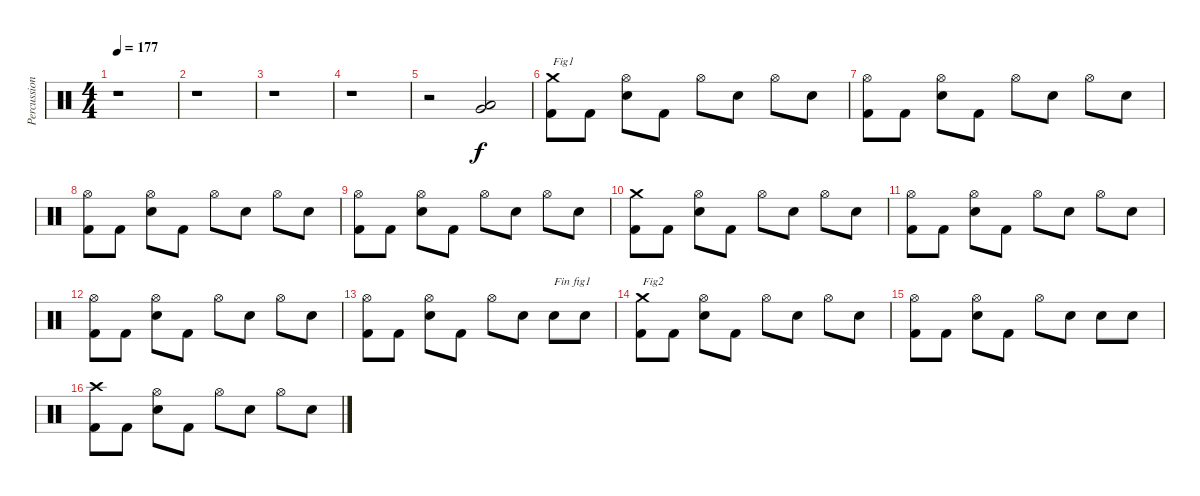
\track ("Percussions" "Percussion") {instrument percussion}
\staff {score}
\articulation defaults
\ts (4 4)
\tempo 177
\clef neutral
\ks c
r.1{dy f} |
r.1 |
r.1 |
r.1 |
r.2 ("Very Low Tom (hit)" "Low Tom (hit)").2 |
("Kick (hit) 2" "Crash medium (hit)").8{txt "Fig1"} "Kick (hit) 2".8 ("Electric Snare (hit)" "Hi-Hat (open)").8 "Kick (hit) 2".8 "Hi-Hat (open)".8 "Electric Snare (hit)".8 "Hi-Hat (open)".8 "Electric Snare (hit)".8 |
("Kick (hit) 2" "Hi-Hat (open)").8 "Kick (hit) 2".8 ("Electric Snare (hit)" "Hi-Hat (open)").8 "Kick (hit) 2".8 "Hi-Hat (open)".8 "Electric Snare (hit)".8 "Hi-Hat (open)".8 "Electric Snare (hit)".8 |
("Kick (hit) 2" "Hi-Hat (open)").8 "Kick (hit) 2".8 ("Electric Snare (hit)" "Hi-Hat (open)").8 "Kick (hit) 2".8 "Hi-Hat (open)".8 "Electric Snare (hit)".8 "Hi-Hat (open)".8 "Electric Snare (hit)".8 |
("Kick (hit) 2" "Hi-Hat (open)").8 "Kick (hit) 2".8 ("Electric Snare (hit)" "Hi-Hat (open)").8 "Kick (hit) 2".8 "Hi-Hat (open)".8 "Electric Snare (hit)".8 "Hi-Hat (open)".8 "Electric Snare (hit)".8 |
("Kick (hit) 2" "Crash medium (hit)").8 "Kick (hit) 2".8 ("Electric Snare (hit)" "Hi-Hat (open)").8 "Kick (hit) 2".8 "Hi-Hat (open)".8 "Electric Snare (hit)".8 "Hi-Hat (open)".8 "Electric Snare (hit)".8 |
("Kick (hit) 2" "Hi-Hat (open)").8 "Kick (hit) 2".8 ("Electric Snare (hit)" "Hi-Hat (open)").8 "Kick (hit) 2".8 "Hi-Hat (open)".8 "Electric Snare (hit)".8 "Hi-Hat (open)".8 "Electric Snare (hit)".8 |
("Kick (hit) 2" "Hi-Hat (open)").8 "Kick (hit) 2".8 ("Electric Snare (hit)" "Hi-Hat (open)").8 "Kick (hit) 2".8 "Hi-Hat (open)".8 "Electric Snare (hit)".8 "Hi-Hat (open)".8 "Electric Snare (hit)".8 |
("Kick (hit) 2" "Hi-Hat (open)").8 "Kick (hit) 2".8 ("Electric Snare (hit)" "Hi-Hat (open)").8 "Kick (hit) 2".8 "Hi-Hat (open)".8 "Electric Snare (hit)".8 "Electric Snare (hit)".8{txt "Fin fig1"} "Electric Snare (hit)".8 |
("Kick (hit) 2" "Crash medium (hit)").8{txt "Fig2"} "Kick (hit) 2".8 ("Electric Snare (hit)" "Hi-Hat (open)").8 "Kick (hit) 2".8 "Hi-Hat (open)".8 "Electric Snare (hit)".8 "Hi-Hat (open)".8 "Electric Snare (hit)".8 |
("Kick (hit) 2" "Hi-Hat (open)").8 "Kick (hit) 2".8 ("Electric Snare (hit)" "Hi-Hat (open)").8 "Kick (hit) 2".8 "Hi-Hat (open)".8 "Electric Snare (hit)".8 "Electric Snare (hit)".8 "Electric Snare (hit)".8 |
("Kick (hit) 2" "Crash high (hit)").8 "Kick (hit) 2".8 ("Electric Snare (hit)" "Hi-Hat (open)").8 "Kick (hit) 2".8 "Hi-Hat (open)".8 "Electric Snare (hit)".8 "Hi-Hat (open)".8 "Electric Snare (hit)".8
